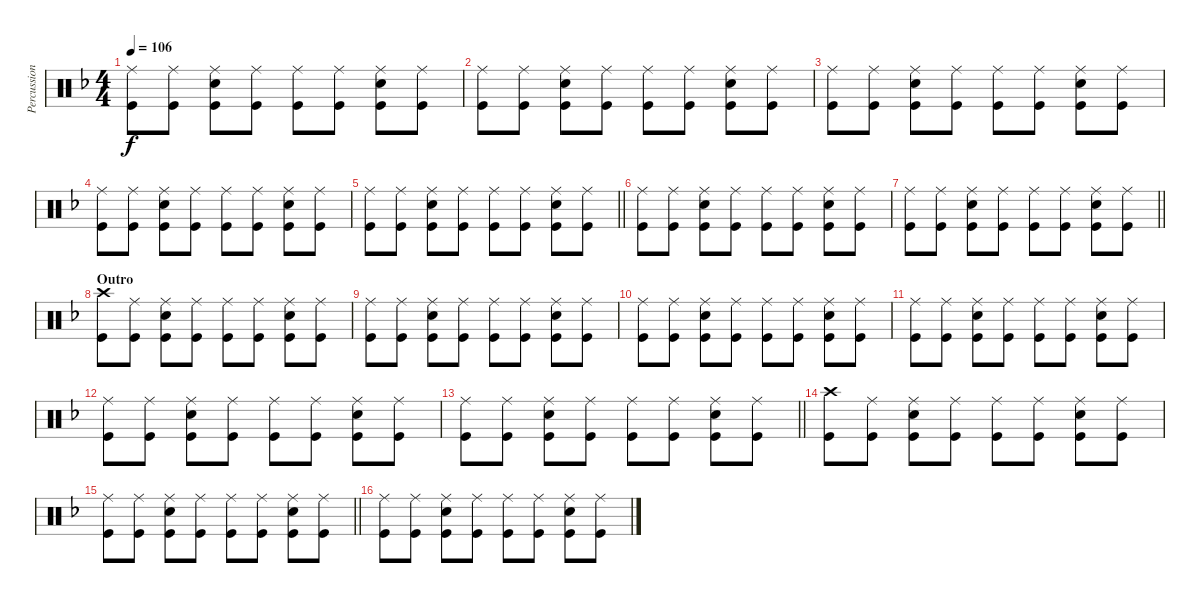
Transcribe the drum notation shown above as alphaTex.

\track ("Percussion" "Percussion") {instrument percussion}
\staff {score}
\articulation defaults
\ts (4 4)
\tempo 106
\clef neutral
\ks dminor
("Ride (middle)" "Kick (hit)").8{dy f} ("Ride (middle)" "Kick (hit)").8 ("Ride (middle)" "Snare (hit) 2" "Kick (hit)").8 ("Ride (middle)" "Kick (hit)").8 ("Ride (middle)" "Kick (hit)").8 ("Ride (middle)" "Kick (hit)").8 ("Ride (middle)" "Snare (hit) 2" "Kick (hit)").8 ("Ride (middle)" "Kick (hit)").8 |
("Ride (middle)" "Kick (hit)").8 ("Ride (middle)" "Kick (hit)").8 ("Ride (middle)" "Snare (hit) 2" "Kick (hit)").8 ("Ride (middle)" "Kick (hit)").8 ("Ride (middle)" "Kick (hit)").8 ("Ride (middle)" "Kick (hit)").8 ("Ride (middle)" "Snare (hit) 2" "Kick (hit)").8 ("Ride (middle)" "Kick (hit)").8 |
("Ride (middle)" "Kick (hit)").8 ("Ride (middle)" "Kick (hit)").8 ("Ride (middle)" "Snare (hit) 2" "Kick (hit)").8 ("Ride (middle)" "Kick (hit)").8 ("Ride (middle)" "Kick (hit)").8 ("Ride (middle)" "Kick (hit)").8 ("Ride (middle)" "Snare (hit) 2" "Kick (hit)").8 ("Ride (middle)" "Kick (hit)").8 |
("Ride (middle)" "Kick (hit)").8 ("Ride (middle)" "Kick (hit)").8 ("Ride (middle)" "Snare (hit) 2" "Kick (hit)").8 ("Ride (middle)" "Kick (hit)").8 ("Ride (middle)" "Kick (hit)").8 ("Ride (middle)" "Kick (hit)").8 ("Ride (middle)" "Snare (hit) 2" "Kick (hit)").8 ("Ride (middle)" "Kick (hit)").8 |
\barLineRight lightlight
("Ride (middle)" "Kick (hit)").8 ("Ride (middle)" "Kick (hit)").8 ("Ride (middle)" "Snare (hit) 2" "Kick (hit)").8 ("Ride (middle)" "Kick (hit)").8 ("Ride (middle)" "Kick (hit)").8 ("Ride (middle)" "Kick (hit)").8 ("Ride (middle)" "Snare (hit) 2" "Kick (hit)").8 ("Ride (middle)" "Kick (hit)").8 |
("Ride (middle)" "Kick (hit)").8 ("Ride (middle)" "Kick (hit)").8 ("Ride (middle)" "Snare (hit) 2" "Kick (hit)").8 ("Ride (middle)" "Kick (hit)").8 ("Ride (middle)" "Kick (hit)").8 ("Ride (middle)" "Kick (hit)").8 ("Ride (middle)" "Snare (hit) 2" "Kick (hit)").8 ("Ride (middle)" "Kick (hit)").8 |
\barLineRight lightlight
("Ride (middle)" "Kick (hit)").8 ("Ride (middle)" "Kick (hit)").8 ("Ride (middle)" "Snare (hit) 2" "Kick (hit)").8 ("Ride (middle)" "Kick (hit)").8 ("Ride (middle)" "Kick (hit)").8 ("Ride (middle)" "Kick (hit)").8 ("Ride (middle)" "Snare (hit) 2" "Kick (hit)").8 ("Ride (middle)" "Kick (hit)").8 |
\section ("" "Outro")
("Crash high (hit)" "Kick (hit)").8 ("Ride (middle)" "Kick (hit)").8 ("Ride (middle)" "Snare (hit) 2" "Kick (hit)").8 ("Ride (middle)" "Kick (hit)").8 ("Ride (middle)" "Kick (hit)").8 ("Ride (middle)" "Kick (hit)").8 ("Ride (middle)" "Snare (hit) 2" "Kick (hit)").8 ("Ride (middle)" "Kick (hit)").8 |
("Ride (middle)" "Kick (hit)").8 ("Ride (middle)" "Kick (hit)").8 ("Ride (middle)" "Snare (hit) 2" "Kick (hit)").8 ("Ride (middle)" "Kick (hit)").8 ("Ride (middle)" "Kick (hit)").8 ("Ride (middle)" "Kick (hit)").8 ("Ride (middle)" "Snare (hit) 2" "Kick (hit)").8 ("Ride (middle)" "Kick (hit)").8 |
("Ride (middle)" "Kick (hit)").8 ("Ride (middle)" "Kick (hit)").8 ("Ride (middle)" "Snare (hit) 2" "Kick (hit)").8 ("Ride (middle)" "Kick (hit)").8 ("Ride (middle)" "Kick (hit)").8 ("Ride (middle)" "Kick (hit)").8 ("Ride (middle)" "Snare (hit) 2" "Kick (hit)").8 ("Ride (middle)" "Kick (hit)").8 |
("Ride (middle)" "Kick (hit)").8 ("Ride (middle)" "Kick (hit)").8 ("Ride (middle)" "Snare (hit) 2" "Kick (hit)").8 ("Ride (middle)" "Kick (hit)").8 ("Ride (middle)" "Kick (hit)").8 ("Ride (middle)" "Kick (hit)").8 ("Ride (middle)" "Snare (hit) 2" "Kick (hit)").8 ("Ride (middle)" "Kick (hit)").8 |
("Ride (middle)" "Kick (hit)").8 ("Ride (middle)" "Kick (hit)").8 ("Ride (middle)" "Snare (hit) 2" "Kick (hit)").8 ("Ride (middle)" "Kick (hit)").8 ("Ride (middle)" "Kick (hit)").8 ("Ride (middle)" "Kick (hit)").8 ("Ride (middle)" "Snare (hit) 2" "Kick (hit)").8 ("Ride (middle)" "Kick (hit)").8 |
\barLineRight lightlight
("Ride (middle)" "Kick (hit)").8 ("Ride (middle)" "Kick (hit)").8 ("Ride (middle)" "Snare (hit) 2" "Kick (hit)").8 ("Ride (middle)" "Kick (hit)").8 ("Ride (middle)" "Kick (hit)").8 ("Ride (middle)" "Kick (hit)").8 ("Ride (middle)" "Snare (hit) 2" "Kick (hit)").8 ("Ride (middle)" "Kick (hit)").8 |
("Crash high (hit)" "Kick (hit)").8 ("Ride (middle)" "Kick (hit)").8 ("Ride (middle)" "Snare (hit) 2" "Kick (hit)").8 ("Ride (middle)" "Kick (hit)").8 ("Ride (middle)" "Kick (hit)").8 ("Ride (middle)" "Kick (hit)").8 ("Ride (middle)" "Snare (hit) 2" "Kick (hit)").8 ("Ride (middle)" "Kick (hit)").8 |
\barLineRight lightlight
("Ride (middle)" "Kick (hit)").8 ("Ride (middle)" "Kick (hit)").8 ("Ride (middle)" "Snare (hit) 2" "Kick (hit)").8 ("Ride (middle)" "Kick (hit)").8 ("Ride (middle)" "Kick (hit)").8 ("Ride (middle)" "Kick (hit)").8 ("Ride (middle)" "Snare (hit) 2" "Kick (hit)").8 ("Ride (middle)" "Kick (hit)").8 |
("Ride (middle)" "Kick (hit)").8 ("Ride (middle)" "Kick (hit)").8 ("Ride (middle)" "Snare (hit) 2" "Kick (hit)").8 ("Ride (middle)" "Kick (hit)").8 ("Ride (middle)" "Kick (hit)").8 ("Ride (middle)" "Kick (hit)").8 ("Ride (middle)" "Snare (hit) 2" "Kick (hit)").8 ("Ride (middle)" "Kick (hit)").8
